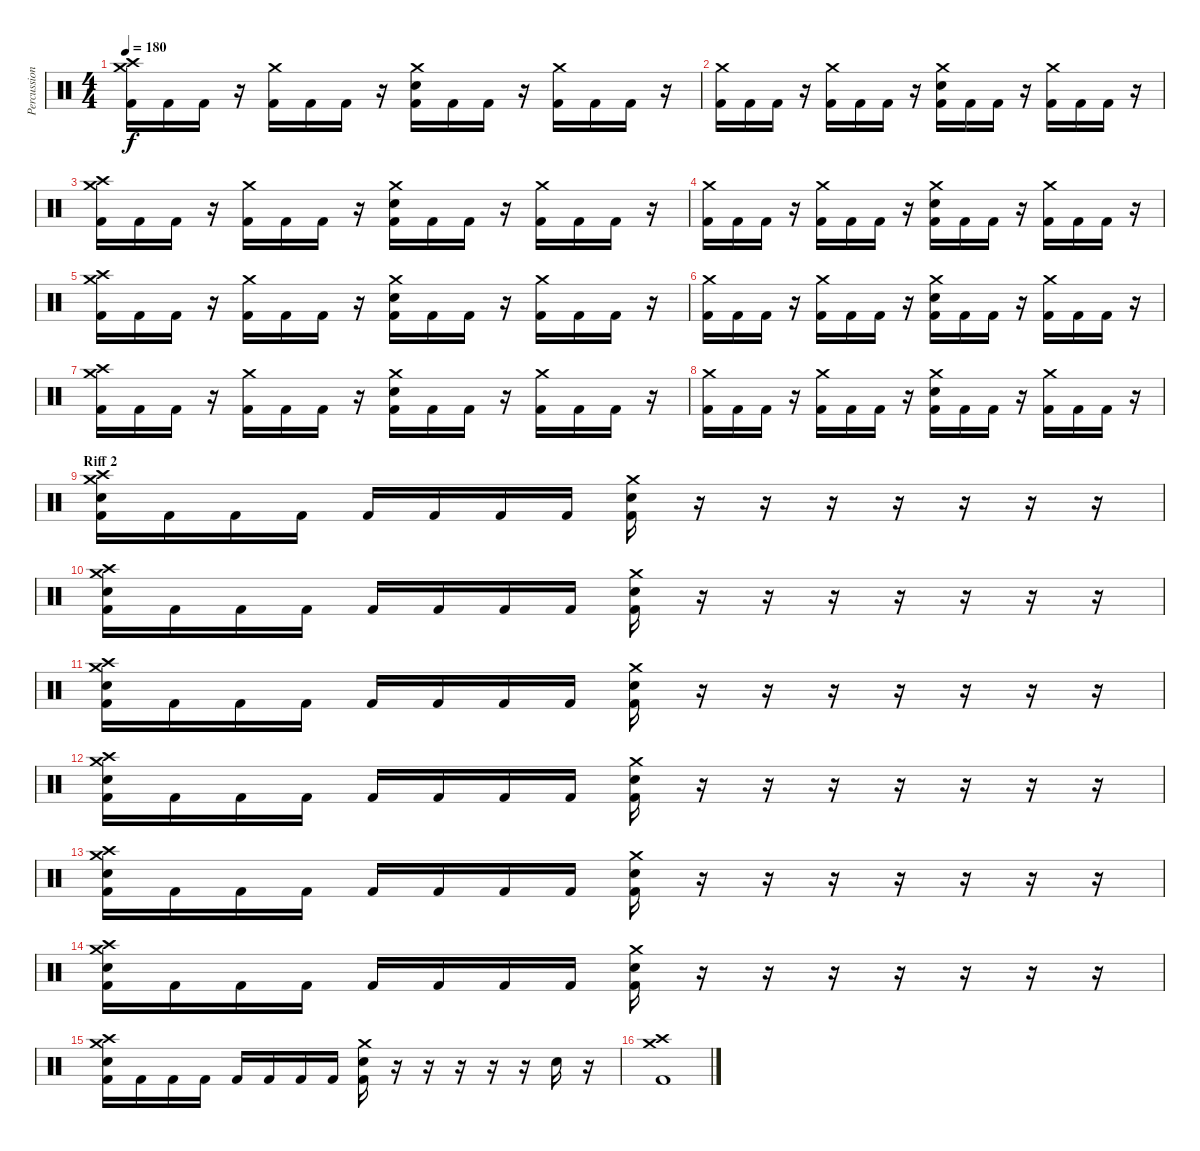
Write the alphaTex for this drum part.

\track ("Percussion" "Percussion") {instrument percussion}
\staff {score}
\articulation defaults
\ts (4 4)
\tempo 180
\clef neutral
\ks c
("Crash medium (hit)" "Crash high (hit)" "Kick (hit) 2").16{dy f} "Kick (hit) 2".16 "Kick (hit) 2".16 r.16 ("Crash medium (hit)" "Kick (hit) 2").16 "Kick (hit) 2".16 "Kick (hit) 2".16 r.16 ("Crash medium (hit)" "Electric Snare (hit)" "Kick (hit) 2").16 "Kick (hit) 2".16 "Kick (hit) 2".16 r.16 ("Crash medium (hit)" "Kick (hit) 2").16 "Kick (hit) 2".16 "Kick (hit) 2".16 r.16 |
("Crash medium (hit)" "Kick (hit) 2").16 "Kick (hit) 2".16 "Kick (hit) 2".16 r.16 ("Crash medium (hit)" "Kick (hit) 2").16 "Kick (hit) 2".16 "Kick (hit) 2".16 r.16 ("Crash medium (hit)" "Electric Snare (hit)" "Kick (hit) 2").16 "Kick (hit) 2".16 "Kick (hit) 2".16 r.16 ("Crash medium (hit)" "Kick (hit) 2").16 "Kick (hit) 2".16 "Kick (hit) 2".16 r.16 |
("Crash medium (hit)" "Crash high (hit)" "Kick (hit) 2").16 "Kick (hit) 2".16 "Kick (hit) 2".16 r.16 ("Crash medium (hit)" "Kick (hit) 2").16 "Kick (hit) 2".16 "Kick (hit) 2".16 r.16 ("Crash medium (hit)" "Electric Snare (hit)" "Kick (hit) 2").16 "Kick (hit) 2".16 "Kick (hit) 2".16 r.16 ("Crash medium (hit)" "Kick (hit) 2").16 "Kick (hit) 2".16 "Kick (hit) 2".16 r.16 |
("Crash medium (hit)" "Kick (hit) 2").16 "Kick (hit) 2".16 "Kick (hit) 2".16 r.16 ("Crash medium (hit)" "Kick (hit) 2").16 "Kick (hit) 2".16 "Kick (hit) 2".16 r.16 ("Crash medium (hit)" "Electric Snare (hit)" "Kick (hit) 2").16 "Kick (hit) 2".16 "Kick (hit) 2".16 r.16 ("Crash medium (hit)" "Kick (hit) 2").16 "Kick (hit) 2".16 "Kick (hit) 2".16 r.16 |
("Crash medium (hit)" "Crash high (hit)" "Kick (hit) 2").16 "Kick (hit) 2".16 "Kick (hit) 2".16 r.16 ("Crash medium (hit)" "Kick (hit) 2").16 "Kick (hit) 2".16 "Kick (hit) 2".16 r.16 ("Crash medium (hit)" "Electric Snare (hit)" "Kick (hit) 2").16 "Kick (hit) 2".16 "Kick (hit) 2".16 r.16 ("Crash medium (hit)" "Kick (hit) 2").16 "Kick (hit) 2".16 "Kick (hit) 2".16 r.16 |
("Crash medium (hit)" "Kick (hit) 2").16 "Kick (hit) 2".16 "Kick (hit) 2".16 r.16 ("Crash medium (hit)" "Kick (hit) 2").16 "Kick (hit) 2".16 "Kick (hit) 2".16 r.16 ("Crash medium (hit)" "Electric Snare (hit)" "Kick (hit) 2").16 "Kick (hit) 2".16 "Kick (hit) 2".16 r.16 ("Crash medium (hit)" "Kick (hit) 2").16 "Kick (hit) 2".16 "Kick (hit) 2".16 r.16 |
("Crash medium (hit)" "Crash high (hit)" "Kick (hit) 2").16 "Kick (hit) 2".16 "Kick (hit) 2".16 r.16 ("Crash medium (hit)" "Kick (hit) 2").16 "Kick (hit) 2".16 "Kick (hit) 2".16 r.16 ("Crash medium (hit)" "Electric Snare (hit)" "Kick (hit) 2").16 "Kick (hit) 2".16 "Kick (hit) 2".16 r.16 ("Crash medium (hit)" "Kick (hit) 2").16 "Kick (hit) 2".16 "Kick (hit) 2".16 r.16 |
("Crash medium (hit)" "Kick (hit) 2").16 "Kick (hit) 2".16 "Kick (hit) 2".16 r.16 ("Crash medium (hit)" "Kick (hit) 2").16 "Kick (hit) 2".16 "Kick (hit) 2".16 r.16 ("Crash medium (hit)" "Electric Snare (hit)" "Kick (hit) 2").16 "Kick (hit) 2".16 "Kick (hit) 2".16 r.16 ("Crash medium (hit)" "Kick (hit) 2").16 "Kick (hit) 2".16 "Kick (hit) 2".16 r.16 |
\section ("" "Riff 2")
("Crash medium (hit)" "Crash high (hit)" "Electric Snare (hit)" "Kick (hit) 2").16 "Kick (hit) 2".16 "Kick (hit) 2".16 "Kick (hit) 2".16 "Kick (hit) 2".16 "Kick (hit) 2".16 "Kick (hit) 2".16 "Kick (hit) 2".16 ("Crash medium (hit)" "Electric Snare (hit)" "Kick (hit) 2").16 r.16 r.16 r.16 r.16 r.16 r.16 r.16 |
("Crash medium (hit)" "Crash high (hit)" "Electric Snare (hit)" "Kick (hit) 2").16 "Kick (hit) 2".16 "Kick (hit) 2".16 "Kick (hit) 2".16 "Kick (hit) 2".16 "Kick (hit) 2".16 "Kick (hit) 2".16 "Kick (hit) 2".16 ("Crash medium (hit)" "Electric Snare (hit)" "Kick (hit) 2").16 r.16 r.16 r.16 r.16 r.16 r.16 r.16 |
("Crash medium (hit)" "Crash high (hit)" "Electric Snare (hit)" "Kick (hit) 2").16 "Kick (hit) 2".16 "Kick (hit) 2".16 "Kick (hit) 2".16 "Kick (hit) 2".16 "Kick (hit) 2".16 "Kick (hit) 2".16 "Kick (hit) 2".16 ("Crash medium (hit)" "Electric Snare (hit)" "Kick (hit) 2").16 r.16 r.16 r.16 r.16 r.16 r.16 r.16 |
("Crash medium (hit)" "Crash high (hit)" "Electric Snare (hit)" "Kick (hit) 2").16 "Kick (hit) 2".16 "Kick (hit) 2".16 "Kick (hit) 2".16 "Kick (hit) 2".16 "Kick (hit) 2".16 "Kick (hit) 2".16 "Kick (hit) 2".16 ("Crash medium (hit)" "Electric Snare (hit)" "Kick (hit) 2").16 r.16 r.16 r.16 r.16 r.16 r.16 r.16 |
("Crash medium (hit)" "Crash high (hit)" "Electric Snare (hit)" "Kick (hit) 2").16 "Kick (hit) 2".16 "Kick (hit) 2".16 "Kick (hit) 2".16 "Kick (hit) 2".16 "Kick (hit) 2".16 "Kick (hit) 2".16 "Kick (hit) 2".16 ("Crash medium (hit)" "Electric Snare (hit)" "Kick (hit) 2").16 r.16 r.16 r.16 r.16 r.16 r.16 r.16 |
("Crash medium (hit)" "Crash high (hit)" "Electric Snare (hit)" "Kick (hit) 2").16 "Kick (hit) 2".16 "Kick (hit) 2".16 "Kick (hit) 2".16 "Kick (hit) 2".16 "Kick (hit) 2".16 "Kick (hit) 2".16 "Kick (hit) 2".16 ("Crash medium (hit)" "Electric Snare (hit)" "Kick (hit) 2").16 r.16 r.16 r.16 r.16 r.16 r.16 r.16 |
("Crash medium (hit)" "Crash high (hit)" "Electric Snare (hit)" "Kick (hit) 2").16 "Kick (hit) 2".16 "Kick (hit) 2".16 "Kick (hit) 2".16 "Kick (hit) 2".16 "Kick (hit) 2".16 "Kick (hit) 2".16 "Kick (hit) 2".16 ("Crash medium (hit)" "Electric Snare (hit)" "Kick (hit) 2").16 r.16 r.16 r.16 r.16 r.16 "Electric Snare (hit)".16 r.16 |
("Crash medium (hit)" "Crash high (hit)" "Kick (hit) 2").1
